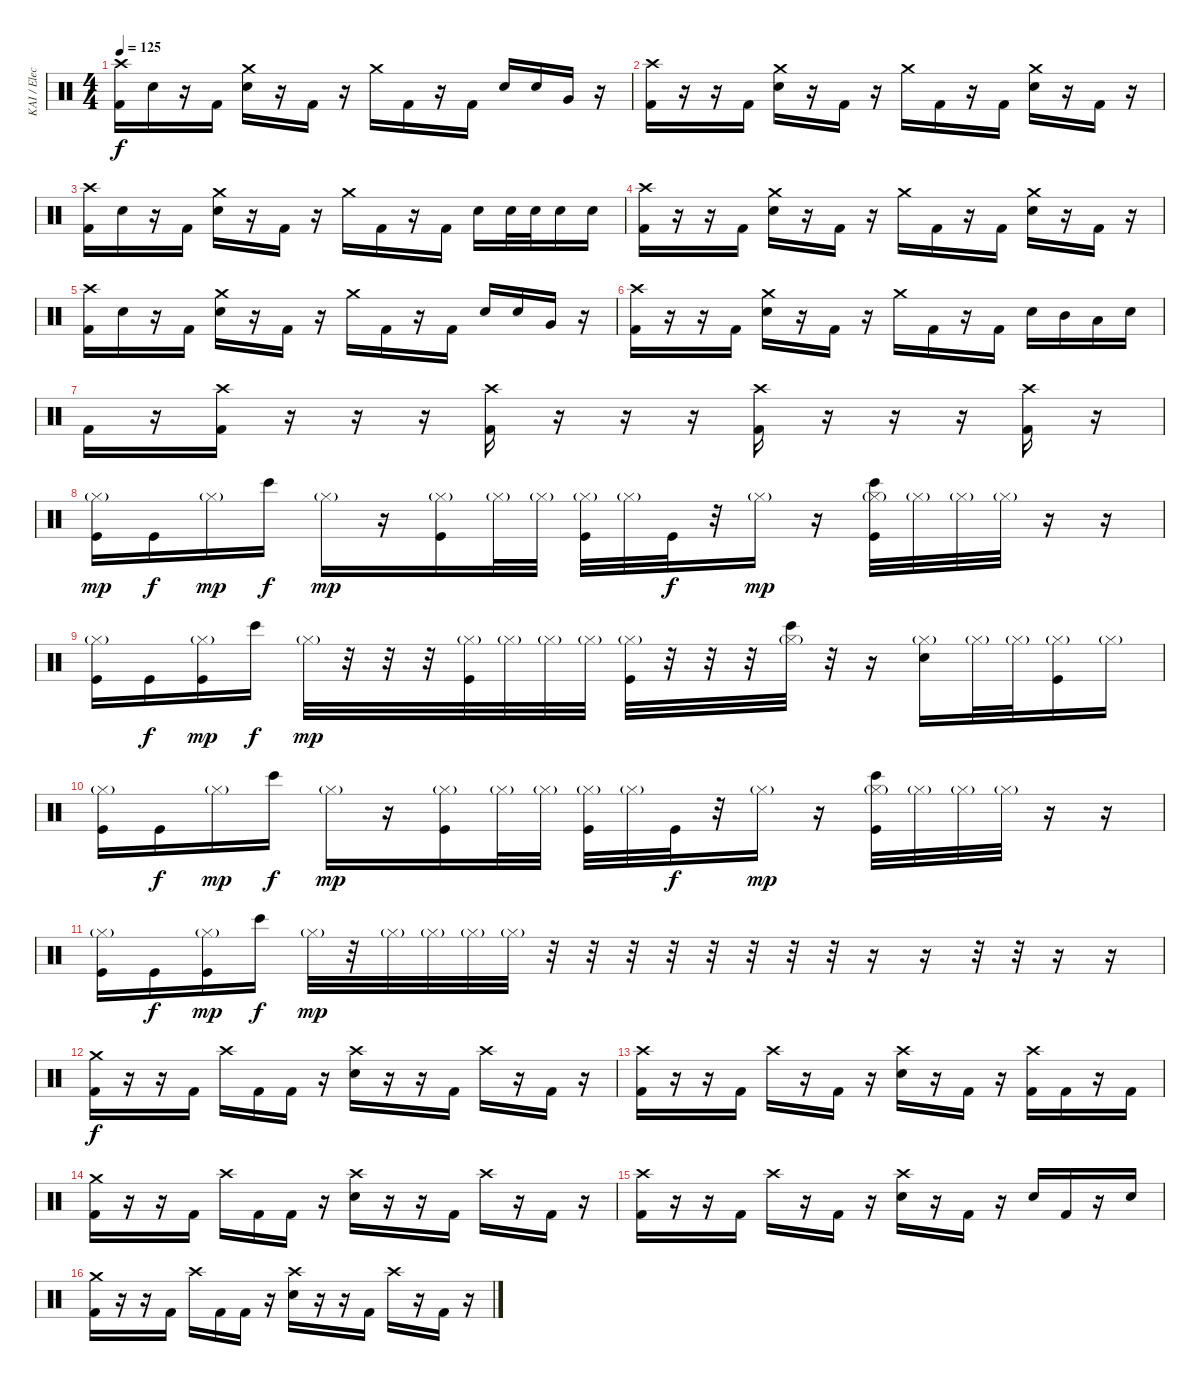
\track ("KAI / Elect. Drums" "KAI / Elec") {instrument percussion}
\staff {score}
\articulation defaults
\ts (4 4)
\tempo 125
\clef neutral
\ks c
("Crash high (hit)" "Kick (hit) 2").16{dy f} "Electric Snare (hit)".16 r.16 "Kick (hit) 2".16 ("Crash medium (hit)" "Electric Snare (hit)").16 r.16 "Kick (hit) 2".16 r.16 "Crash medium (hit)".16 "Kick (hit) 2".16 r.16 "Kick (hit) 2".16 "Electric Snare (hit)".16 "Electric Snare (hit)".16 "Very Low Tom (hit)".16 r.16 |
("Crash high (hit)" "Kick (hit) 2").16 r.16 r.16 "Kick (hit) 2".16 ("Crash medium (hit)" "Electric Snare (hit)").16 r.16 "Kick (hit) 2".16 r.16 "Crash medium (hit)".16 "Kick (hit) 2".16 r.16 "Kick (hit) 2".16 ("Crash medium (hit)" "Electric Snare (hit)").16 r.16 "Kick (hit) 2".16 r.16 |
("Crash high (hit)" "Kick (hit) 2").16 "Electric Snare (hit)".16 r.16 "Kick (hit) 2".16 ("Crash medium (hit)" "Electric Snare (hit)").16 r.16 "Kick (hit) 2".16 r.16 "Crash medium (hit)".16 "Kick (hit) 2".16 r.16 "Kick (hit) 2".16 "Electric Snare (hit)".16 "Electric Snare (hit)".32 "Electric Snare (hit)".32 "Electric Snare (hit)".16 "Electric Snare (hit)".16 |
("Crash high (hit)" "Kick (hit) 2").16 r.16 r.16 "Kick (hit) 2".16 ("Crash medium (hit)" "Electric Snare (hit)").16 r.16 "Kick (hit) 2".16 r.16 "Crash medium (hit)".16 "Kick (hit) 2".16 r.16 "Kick (hit) 2".16 ("Crash medium (hit)" "Electric Snare (hit)").16 r.16 "Kick (hit) 2".16 r.16 |
("Crash high (hit)" "Kick (hit) 2").16 "Electric Snare (hit)".16 r.16 "Kick (hit) 2".16 ("Crash medium (hit)" "Electric Snare (hit)").16 r.16 "Kick (hit) 2".16 r.16 "Crash medium (hit)".16 "Kick (hit) 2".16 r.16 "Kick (hit) 2".16 "Electric Snare (hit)".16 "Electric Snare (hit)".16 "Very Low Tom (hit)".16 r.16 |
("Crash high (hit)" "Kick (hit) 2").16 r.16 r.16 "Kick (hit) 2".16 ("Crash medium (hit)" "Electric Snare (hit)").16 r.16 "Kick (hit) 2".16 r.16 "Crash medium (hit)".16 "Kick (hit) 2".16 r.16 "Kick (hit) 2".16 "Electric Snare (hit)".16 "Mid Tom (hit)".16 "Low Tom (hit)".16 "Electric Snare (hit)".16 |
"Kick (hit) 2".16 r.16 ("Crash high (hit)" "Kick (hit) 2").16 r.16 r.16 r.16 ("Crash high (hit)" "Kick (hit) 2").16 r.16 r.16 r.16 ("Crash high (hit)" "Kick (hit) 2").16 r.16 r.16 r.16 ("Crash high (hit)" "Kick (hit) 2").16 r.16 |
("Hi-Hat (closed)"{g} "Kick (hit)").16{dy mp} "Kick (hit)".16{dy f} "Hi-Hat (closed)"{g}.16{dy mp} "Bongo High (hit)".16{dy f} "Hi-Hat (closed)"{g}.16{dy mp} r.16 ("Hi-Hat (closed)"{g} "Kick (hit)").16 "Hi-Hat (closed)"{g}.32 "Hi-Hat (closed)"{g}.32 ("Hi-Hat (closed)"{g} "Kick (hit)").32 "Hi-Hat (closed)"{g}.32 "Kick (hit)".32{dy f} r.32 "Hi-Hat (closed)"{g}.16{dy mp} r.16 ("Bongo High (hit)" "Hi-Hat (closed)"{g} "Kick (hit)").32 "Hi-Hat (closed)"{g}.32 "Hi-Hat (closed)"{g}.32 "Hi-Hat (closed)"{g}.32 r.16 r.16 |
("Hi-Hat (closed)"{g} "Kick (hit)").16 "Kick (hit)".16{dy f} ("Hi-Hat (closed)"{g} "Kick (hit)").16{dy mp} "Bongo High (hit)".16{dy f} "Hi-Hat (closed)"{g}.32{dy mp} r.32 r.32 r.32 ("Hi-Hat (closed)"{g} "Kick (hit)").32 "Hi-Hat (closed)"{g}.32 "Hi-Hat (closed)"{g}.32 "Hi-Hat (closed)"{g}.32 ("Hi-Hat (closed)"{g} "Kick (hit)").32 r.32 r.32 r.32 ("Bongo High (hit)" "Hi-Hat (closed)"{g}).32 r.32 r.16 ("Hand Clap (hit)" "Hi-Hat (closed)"{g}).16 "Hi-Hat (closed)"{g}.32 "Hi-Hat (closed)"{g}.32 ("Hi-Hat (closed)"{g} "Kick (hit)").16 "Hi-Hat (closed)"{g}.16 |
("Hi-Hat (closed)"{g} "Kick (hit)").16 "Kick (hit)".16{dy f} "Hi-Hat (closed)"{g}.16{dy mp} "Bongo High (hit)".16{dy f} "Hi-Hat (closed)"{g}.16{dy mp} r.16 ("Hi-Hat (closed)"{g} "Kick (hit)").16 "Hi-Hat (closed)"{g}.32 "Hi-Hat (closed)"{g}.32 ("Hi-Hat (closed)"{g} "Kick (hit)").32 "Hi-Hat (closed)"{g}.32 "Kick (hit)".32{dy f} r.32 "Hi-Hat (closed)"{g}.16{dy mp} r.16 ("Bongo High (hit)" "Hi-Hat (closed)"{g} "Kick (hit)").32 "Hi-Hat (closed)"{g}.32 "Hi-Hat (closed)"{g}.32 "Hi-Hat (closed)"{g}.32 r.16 r.16 |
("Hi-Hat (closed)"{g} "Kick (hit)").16 "Kick (hit)".16{dy f} ("Hi-Hat (closed)"{g} "Kick (hit)").16{dy mp} "Bongo High (hit)".16{dy f} "Hi-Hat (closed)"{g}.32{dy mp} r.32 "Hi-Hat (closed)"{g}.32 "Hi-Hat (closed)"{g}.32 "Hi-Hat (closed)"{g}.32 "Hi-Hat (closed)"{g}.32 r.32 r.32 r.32 r.32 r.32 r.32 r.32 r.32 r.16 r.16 r.32 r.32 r.16 r.16 |
("Crash medium (hit)" "Kick (hit) 2").16{dy f} r.16 r.16 "Kick (hit) 2".16 "Crash high (hit)".16 "Kick (hit) 2".16 "Kick (hit) 2".16 r.16 ("Crash high (hit)" "Electric Snare (hit)").16 r.16 r.16 "Kick (hit) 2".16 "Crash high (hit)".16 r.16 "Kick (hit) 2".16 r.16 |
("Crash high (hit)" "Kick (hit) 2").16 r.16 r.16 "Kick (hit) 2".16 "Crash high (hit)".16 r.16 "Kick (hit) 2".16 r.16 ("Crash high (hit)" "Electric Snare (hit)").16 r.16 "Kick (hit) 2".16 r.16 ("Crash high (hit)" "Kick (hit) 2").16 "Kick (hit) 2".16 r.16 "Kick (hit) 2".16 |
("Crash medium (hit)" "Kick (hit) 2").16 r.16 r.16 "Kick (hit) 2".16 "Crash high (hit)".16 "Kick (hit) 2".16 "Kick (hit) 2".16 r.16 ("Crash high (hit)" "Electric Snare (hit)").16 r.16 r.16 "Kick (hit) 2".16 "Crash high (hit)".16 r.16 "Kick (hit) 2".16 r.16 |
("Crash high (hit)" "Kick (hit) 2").16 r.16 r.16 "Kick (hit) 2".16 "Crash high (hit)".16 r.16 "Kick (hit) 2".16 r.16 ("Crash high (hit)" "Electric Snare (hit)").16 r.16 "Kick (hit) 2".16 r.16 "Electric Snare (hit)".16 "Kick (hit) 2".16 r.16 "Electric Snare (hit)".16 |
("Crash medium (hit)" "Kick (hit) 2").16 r.16 r.16 "Kick (hit) 2".16 "Crash high (hit)".16 "Kick (hit) 2".16 "Kick (hit) 2".16 r.16 ("Crash high (hit)" "Electric Snare (hit)").16 r.16 r.16 "Kick (hit) 2".16 "Crash high (hit)".16 r.16 "Kick (hit) 2".16 r.16
